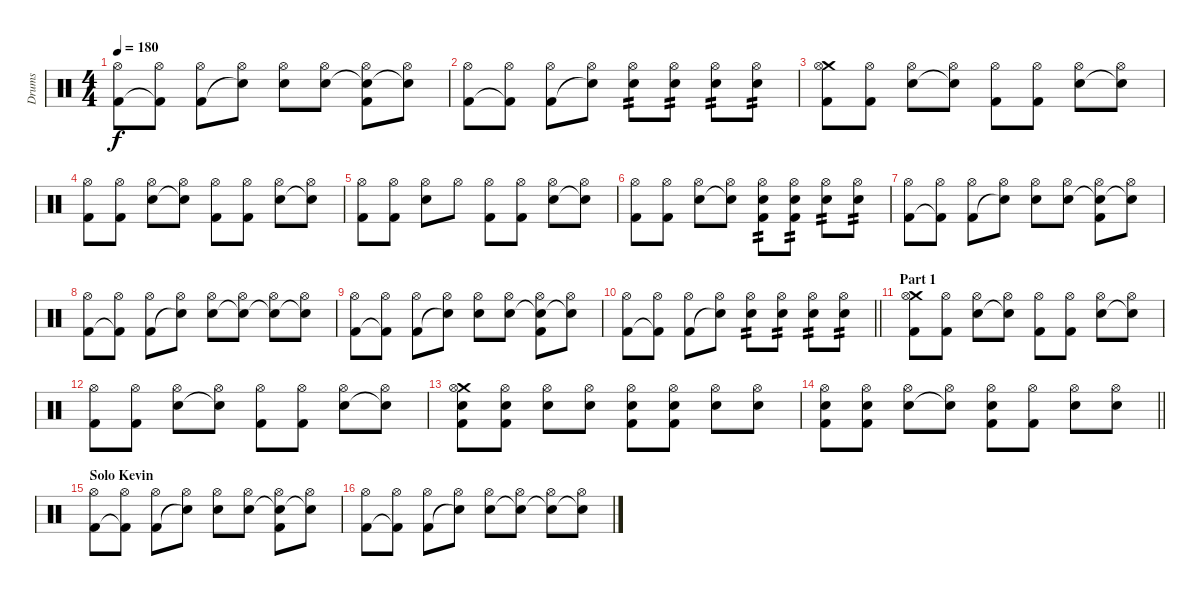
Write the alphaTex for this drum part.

\track ("Drums" "Drums") {instrument percussion}
\staff {score}
\articulation defaults
\ts (4 4)
\tempo 180
\clef neutral
\ks c
("Hi-Hat (open)" "Kick (hit) 2").8{dy f} ("Hi-Hat (open)" "Kick (hit) 2"{t}).8 ("Hi-Hat (open)" "Kick (hit) 2").8 ("Hi-Hat (open)" "Snare (hit)"{t}).8 ("Hi-Hat (open)" "Electric Snare (hit)").8 ("Hi-Hat (open)" "Electric Snare (hit)").8 ("Hi-Hat (open)" "Electric Snare (hit)"{t} "Kick (hit) 2").8 ("Hi-Hat (open)" "Snare (hit)"{t}).8 |
("Hi-Hat (open)" "Kick (hit) 2").8 ("Hi-Hat (open)" "Kick (hit) 2"{t}).8 ("Hi-Hat (open)" "Kick (hit) 2").8 ("Hi-Hat (open)" "Snare (hit)"{t}).8 ("Hi-Hat (open)" "Electric Snare (hit)").8{tp 2} ("Hi-Hat (open)" "Electric Snare (hit)").8{tp 2} ("Hi-Hat (open)" "Electric Snare (hit)").8{tp 2} ("Hi-Hat (open)" "Electric Snare (hit)").8{tp 2} |
("Crash medium (hit)" "Hi-Hat (open)" "Kick (hit) 2").8 ("Hi-Hat (open)" "Kick (hit) 2").8 ("Hi-Hat (open)" "Electric Snare (hit)").8 ("Hi-Hat (open)" "Snare (hit)"{t}).8 ("Hi-Hat (open)" "Kick (hit) 2").8 ("Hi-Hat (open)" "Kick (hit) 2").8 ("Hi-Hat (open)" "Electric Snare (hit)").8 ("Hi-Hat (open)" "Snare (hit)"{t}).8 |
("Hi-Hat (open)" "Kick (hit) 2").8 ("Hi-Hat (open)" "Kick (hit) 2").8 ("Hi-Hat (open)" "Electric Snare (hit)").8 ("Hi-Hat (open)" "Snare (hit)"{t}).8 ("Hi-Hat (open)" "Kick (hit) 2").8 ("Hi-Hat (open)" "Kick (hit) 2").8 ("Hi-Hat (open)" "Electric Snare (hit)").8 ("Hi-Hat (open)" "Snare (hit)"{t}).8 |
("Hi-Hat (open)" "Kick (hit) 2").8 ("Hi-Hat (open)" "Kick (hit) 2").8 ("Hi-Hat (open)" "Electric Snare (hit)").8 "Hi-Hat (open)".8 ("Hi-Hat (open)" "Kick (hit) 2").8 ("Hi-Hat (open)" "Kick (hit) 2").8 ("Hi-Hat (open)" "Electric Snare (hit)").8 ("Hi-Hat (open)" "Snare (hit)"{t}).8 |
("Hi-Hat (open)" "Kick (hit) 2").8 ("Hi-Hat (open)" "Kick (hit) 2").8 ("Hi-Hat (open)" "Electric Snare (hit)").8 ("Hi-Hat (open)" "Snare (hit)"{t}).8 ("Hi-Hat (open)" "Electric Snare (hit)" "Kick (hit) 2").8{tp 2} ("Hi-Hat (open)" "Electric Snare (hit)" "Kick (hit) 2").8{tp 2} ("Hi-Hat (open)" "Electric Snare (hit)").8{tp 2} ("Hi-Hat (open)" "Electric Snare (hit)").8{tp 2} |
("Hi-Hat (open)" "Kick (hit) 2").8 ("Hi-Hat (open)" "Kick (hit) 2"{t}).8 ("Hi-Hat (open)" "Kick (hit) 2").8 ("Hi-Hat (open)" "Snare (hit)"{t}).8 ("Hi-Hat (open)" "Electric Snare (hit)").8 ("Hi-Hat (open)" "Electric Snare (hit)").8 ("Hi-Hat (open)" "Electric Snare (hit)"{t} "Kick (hit) 2").8 ("Hi-Hat (open)" "Snare (hit)"{t}).8 |
("Hi-Hat (open)" "Kick (hit) 2").8 ("Hi-Hat (open)" "Kick (hit) 2"{t}).8 ("Hi-Hat (open)" "Kick (hit) 2").8 ("Hi-Hat (open)" "Snare (hit)"{t}).8 ("Hi-Hat (open)" "Electric Snare (hit)").8 ("Hi-Hat (open)" "Electric Snare (hit)"{t}).8 ("Hi-Hat (open)" "Electric Snare (hit)"{t}).8 ("Hi-Hat (open)" "Snare (hit)"{t}).8 |
("Hi-Hat (open)" "Kick (hit) 2").8 ("Hi-Hat (open)" "Kick (hit) 2"{t}).8 ("Hi-Hat (open)" "Kick (hit) 2").8 ("Hi-Hat (open)" "Snare (hit)"{t}).8 ("Hi-Hat (open)" "Electric Snare (hit)").8 ("Hi-Hat (open)" "Electric Snare (hit)").8 ("Hi-Hat (open)" "Electric Snare (hit)"{t} "Kick (hit) 2").8 ("Hi-Hat (open)" "Snare (hit)"{t}).8 |
\barLineRight lightlight
("Hi-Hat (open)" "Kick (hit) 2").8 ("Hi-Hat (open)" "Kick (hit) 2"{t}).8 ("Hi-Hat (open)" "Kick (hit) 2").8 ("Hi-Hat (open)" "Snare (hit)"{t}).8 ("Hi-Hat (open)" "Electric Snare (hit)").8{tp 2} ("Hi-Hat (open)" "Electric Snare (hit)").8{tp 2} ("Hi-Hat (open)" "Electric Snare (hit)").8{tp 2} ("Hi-Hat (open)" "Electric Snare (hit)").8{tp 2} |
\section ("" "Part 1")
("Crash medium (hit)" "Hi-Hat (open)" "Kick (hit) 2").8 ("Hi-Hat (open)" "Kick (hit) 2").8 ("Hi-Hat (open)" "Electric Snare (hit)").8 ("Hi-Hat (open)" "Snare (hit)"{t}).8 ("Hi-Hat (open)" "Kick (hit) 2").8 ("Hi-Hat (open)" "Kick (hit) 2").8 ("Hi-Hat (open)" "Electric Snare (hit)").8 ("Hi-Hat (open)" "Snare (hit)"{t}).8 |
("Hi-Hat (open)" "Kick (hit) 2").8 ("Hi-Hat (open)" "Kick (hit) 2").8 ("Hi-Hat (open)" "Electric Snare (hit)").8 ("Hi-Hat (open)" "Snare (hit)"{t}).8 ("Hi-Hat (open)" "Kick (hit) 2").8 ("Hi-Hat (open)" "Kick (hit) 2").8 ("Hi-Hat (open)" "Electric Snare (hit)").8 ("Hi-Hat (open)" "Snare (hit)"{t}).8 |
("Crash medium (hit)" "Hi-Hat (open)" "Electric Snare (hit)" "Kick (hit) 2").8 ("Hi-Hat (open)" "Electric Snare (hit)" "Kick (hit) 2").8 ("Hi-Hat (open)" "Electric Snare (hit)").8 ("Hi-Hat (open)" "Electric Snare (hit)").8 ("Hi-Hat (open)" "Electric Snare (hit)" "Kick (hit) 2").8 ("Hi-Hat (open)" "Electric Snare (hit)" "Kick (hit) 2").8 ("Hi-Hat (open)" "Electric Snare (hit)").8 ("Hi-Hat (open)" "Electric Snare (hit)").8 |
\barLineRight lightlight
("Hi-Hat (open)" "Electric Snare (hit)" "Kick (hit) 2").8 ("Hi-Hat (open)" "Electric Snare (hit)" "Kick (hit) 2").8 ("Hi-Hat (open)" "Electric Snare (hit)").8 ("Hi-Hat (open)" "Snare (hit)"{t}).8 ("Hi-Hat (open)" "Electric Snare (hit)" "Kick (hit) 2").8 ("Hi-Hat (open)" "Kick (hit) 2").8 ("Hi-Hat (open)" "Electric Snare (hit)").8 ("Hi-Hat (open)" "Electric Snare (hit)").8 |
\section ("" "Solo Kevin")
("Hi-Hat (open)" "Kick (hit) 2").8 ("Hi-Hat (open)" "Kick (hit) 2"{t}).8 ("Hi-Hat (open)" "Kick (hit) 2").8 ("Hi-Hat (open)" "Snare (hit)"{t}).8 ("Hi-Hat (open)" "Electric Snare (hit)").8 ("Hi-Hat (open)" "Electric Snare (hit)").8 ("Hi-Hat (open)" "Electric Snare (hit)"{t} "Kick (hit) 2").8 ("Hi-Hat (open)" "Snare (hit)"{t}).8 |
("Hi-Hat (open)" "Kick (hit) 2").8 ("Hi-Hat (open)" "Kick (hit) 2"{t}).8 ("Hi-Hat (open)" "Kick (hit) 2").8 ("Hi-Hat (open)" "Snare (hit)"{t}).8 ("Hi-Hat (open)" "Electric Snare (hit)").8 ("Hi-Hat (open)" "Electric Snare (hit)"{t}).8 ("Hi-Hat (open)" "Electric Snare (hit)"{t}).8 ("Hi-Hat (open)" "Snare (hit)"{t}).8
